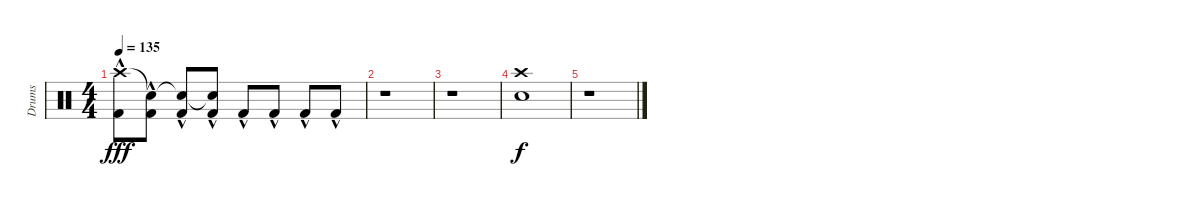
\track ("Drums" "Drums") {instrument percussion}
\staff {score}
\articulation defaults
\ts (4 4)
\tempo 135
\clef neutral
\ks c
("Crash high (hit)"{hac} "Kick (hit) 2"{hac}).8{dy fff} ("Snare (hit)"{t} "Kick (hit) 2"{hac}).8 ("Snare (hit)"{t} "Kick (hit) 2"{hac}).8 ("Snare (hit)"{t} "Kick (hit) 2"{hac}).8 "Kick (hit) 2"{hac}.8 "Kick (hit) 2"{hac}.8 "Kick (hit) 2"{hac}.8 "Kick (hit) 2"{hac}.8 |
r.1 |
r.1 |
("Crash high (hit)" "Snare (hit) 2").1{dy f volume 16} |
r.1
